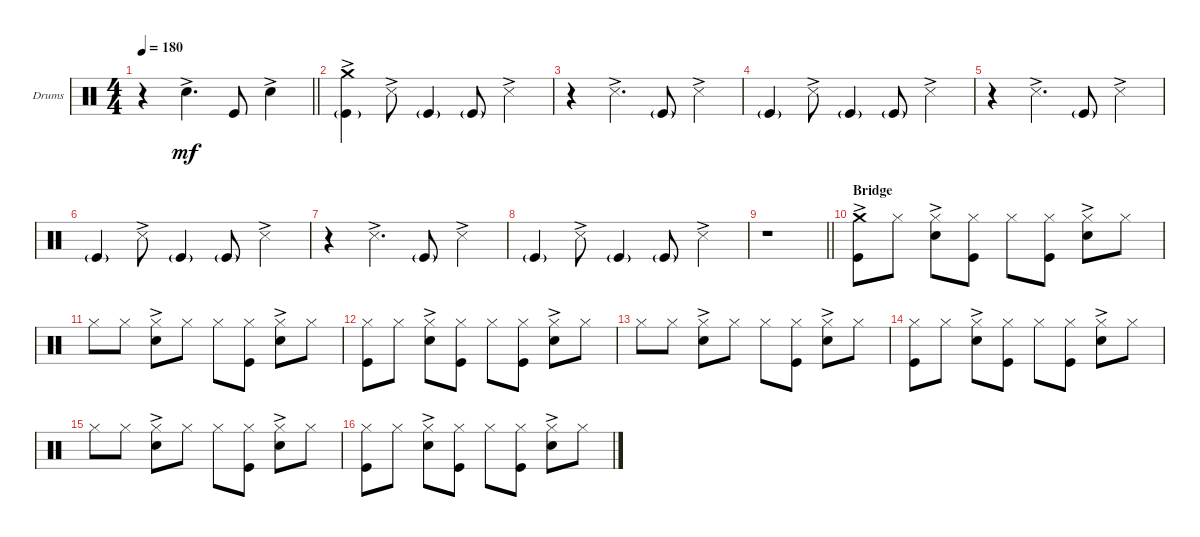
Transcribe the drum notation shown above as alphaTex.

\defaultSystemsLayout 4
\bracketExtendMode groupsimilarinstruments
\firstSystemTrackNameOrientation horizontal
\otherSystemsTrackNameOrientation horizontal
\track ("Will - Drumkit" "Drums") {instrument percussion}
\staff {score}
\articulation defaults
\ts (4 4)
\tempo 180
\clef neutral
\barLineRight lightlight
\ks c
r.4{dy mf} "Snare (hit) 2"{ac}.4{d} "Kick (hit)".8 "Snare (hit) 2"{ac}.4 |
("Kick (hit)"{g} "Crash medium (hit)"{ac}).4 "Snare (side stick) 3"{ac}.8 "Kick (hit)"{g}.4 "Kick (hit)"{g}.8 "Snare (side stick) 3"{ac}.4 |
r.4 "Snare (side stick) 3"{ac}.4{d} "Kick (hit)"{g}.8 "Snare (side stick) 3"{ac}.4 |
"Kick (hit)"{g}.4 "Snare (side stick) 3"{ac}.8 "Kick (hit)"{g}.4 "Kick (hit)"{g}.8 "Snare (side stick) 3"{ac}.4 |
r.4 "Snare (side stick) 3"{ac}.4{d} "Kick (hit)"{g}.8 "Snare (side stick) 3"{ac}.4 |
"Kick (hit)"{g}.4 "Snare (side stick) 3"{ac}.8 "Kick (hit)"{g}.4 "Kick (hit)"{g}.8 "Snare (side stick) 3"{ac}.4 |
r.4 "Snare (side stick) 3"{ac}.4{d} "Kick (hit)"{g}.8 "Snare (side stick) 3"{ac}.4 |
"Kick (hit)"{g}.4 "Snare (side stick) 3"{ac}.8 "Kick (hit)"{g}.4 "Kick (hit)"{g}.8 "Snare (side stick) 3"{ac}.4 |
\barLineRight lightlight
r.1 |
\section ("" "Bridge")
("Kick (hit)" "Crash medium (hit)"{ac}).8 "Hi-Hat (closed)".8 ("Hi-Hat (closed)" "Snare (hit) 2"{ac}).8 ("Hi-Hat (closed)" "Kick (hit)").8 "Hi-Hat (closed)".8 ("Hi-Hat (closed)" "Kick (hit)").8 ("Hi-Hat (closed)" "Snare (hit) 2"{ac}).8 "Hi-Hat (closed)".8 |
"Hi-Hat (closed)".8 "Hi-Hat (closed)".8 ("Hi-Hat (closed)" "Snare (hit) 2"{ac}).8 "Hi-Hat (closed)".8 "Hi-Hat (closed)".8 ("Hi-Hat (closed)" "Kick (hit)").8 ("Hi-Hat (closed)" "Snare (hit) 2"{ac}).8 "Hi-Hat (closed)".8 |
("Kick (hit)" "Hi-Hat (closed)").8 "Hi-Hat (closed)".8 ("Hi-Hat (closed)" "Snare (hit) 2"{ac}).8 ("Hi-Hat (closed)" "Kick (hit)").8 "Hi-Hat (closed)".8 ("Hi-Hat (closed)" "Kick (hit)").8 ("Hi-Hat (closed)" "Snare (hit) 2"{ac}).8 "Hi-Hat (closed)".8 |
"Hi-Hat (closed)".8 "Hi-Hat (closed)".8 ("Hi-Hat (closed)" "Snare (hit) 2"{ac}).8 "Hi-Hat (closed)".8 "Hi-Hat (closed)".8 ("Hi-Hat (closed)" "Kick (hit)").8 ("Hi-Hat (closed)" "Snare (hit) 2"{ac}).8 "Hi-Hat (closed)".8 |
("Kick (hit)" "Hi-Hat (closed)").8 "Hi-Hat (closed)".8 ("Hi-Hat (closed)" "Snare (hit) 2"{ac}).8 ("Hi-Hat (closed)" "Kick (hit)").8 "Hi-Hat (closed)".8 ("Hi-Hat (closed)" "Kick (hit)").8 ("Hi-Hat (closed)" "Snare (hit) 2"{ac}).8 "Hi-Hat (closed)".8 |
"Hi-Hat (closed)".8 "Hi-Hat (closed)".8 ("Hi-Hat (closed)" "Snare (hit) 2"{ac}).8 "Hi-Hat (closed)".8 "Hi-Hat (closed)".8 ("Hi-Hat (closed)" "Kick (hit)").8 ("Hi-Hat (closed)" "Snare (hit) 2"{ac}).8 "Hi-Hat (closed)".8 |
("Kick (hit)" "Hi-Hat (closed)").8 "Hi-Hat (closed)".8 ("Hi-Hat (closed)" "Snare (hit) 2"{ac}).8 ("Hi-Hat (closed)" "Kick (hit)").8 "Hi-Hat (closed)".8 ("Hi-Hat (closed)" "Kick (hit)").8 ("Hi-Hat (closed)" "Snare (hit) 2"{ac}).8 "Hi-Hat (closed)".8
